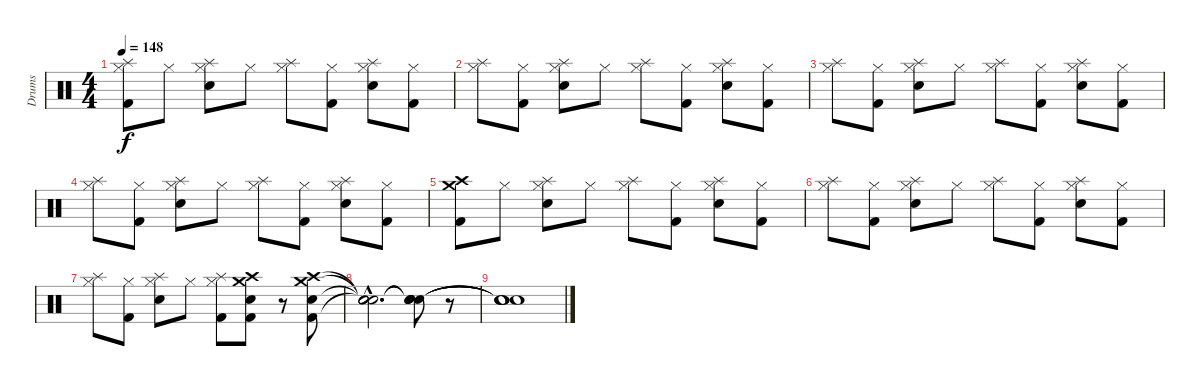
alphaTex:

\track ("Drums" "Drums") {instrument percussion}
\staff {score}
\articulation defaults
\ts (4 4)
\tempo 148
\clef neutral
\ks c
("Splash (hit)" "Hi-Hat (closed)" "Kick (hit) 2").8{dy f} "Hi-Hat (closed)".8 ("Hi-Hat (closed)" "Snare (hit) 2" "Splash (hit)").8 "Hi-Hat (closed)".8 ("Hi-Hat (closed)" "Splash (hit)").8 ("Hi-Hat (closed)" "Kick (hit) 2").8 ("Hi-Hat (closed)" "Snare (hit) 2" "Splash (hit)").8 ("Hi-Hat (closed)" "Kick (hit) 2").8 |
("Hi-Hat (closed)" "Splash (hit)").8 ("Hi-Hat (closed)" "Kick (hit) 2").8 ("Hi-Hat (closed)" "Splash (hit)" "Snare (hit) 2").8{volume 13 balance 8} "Hi-Hat (closed)".8 ("Hi-Hat (closed)" "Splash (hit)").8 ("Hi-Hat (closed)" "Kick (hit) 2").8 ("Hi-Hat (closed)" "Snare (hit) 2" "Splash (hit)").8 ("Hi-Hat (closed)" "Kick (hit) 2").8 |
("Hi-Hat (closed)" "Splash (hit)").8 ("Hi-Hat (closed)" "Kick (hit) 2").8 ("Hi-Hat (closed)" "Splash (hit)" "Snare (hit) 2").8 "Hi-Hat (closed)".8 ("Hi-Hat (closed)" "Splash (hit)").8 ("Hi-Hat (closed)" "Kick (hit) 2").8 ("Hi-Hat (closed)" "Snare (hit) 2" "Splash (hit)").8 ("Hi-Hat (closed)" "Kick (hit) 2").8 |
("Hi-Hat (closed)" "Splash (hit)").8 ("Hi-Hat (closed)" "Kick (hit) 2").8 ("Hi-Hat (closed)" "Splash (hit)" "Snare (hit) 2").8 "Hi-Hat (closed)".8 ("Hi-Hat (closed)" "Splash (hit)").8 ("Kick (hit) 2" "Hi-Hat (closed)").8 ("Snare (hit) 2" "Hi-Hat (closed)" "Splash (hit)").8 ("Hi-Hat (closed)" "Kick (hit) 2").8 |
("Kick (hit) 2" "Crash medium (hit)" "Crash high (hit)").8 "Hi-Hat (closed)".8 ("Hi-Hat (closed)" "Splash (hit)" "Snare (hit) 2").8 "Hi-Hat (closed)".8 ("Hi-Hat (closed)" "Splash (hit)").8 ("Hi-Hat (closed)" "Kick (hit) 2").8 ("Hi-Hat (closed)" "Snare (hit) 2" "Splash (hit)").8 ("Hi-Hat (closed)" "Kick (hit) 2").8 |
("Hi-Hat (closed)" "Splash (hit)").8 ("Hi-Hat (closed)" "Kick (hit) 2").8 ("Hi-Hat (closed)" "Snare (hit) 2" "Splash (hit)").8 "Hi-Hat (closed)".8 ("Hi-Hat (closed)" "Splash (hit)").8 ("Hi-Hat (closed)" "Kick (hit) 2").8 ("Hi-Hat (closed)" "Snare (hit) 2" "Splash (hit)").8 ("Hi-Hat (closed)" "Kick (hit) 2").8 |
("Hi-Hat (closed)" "Splash (hit)").8 ("Kick (hit) 2" "Hi-Hat (closed)").8 ("Hi-Hat (closed)" "Snare (hit) 2" "Splash (hit)").8 "Hi-Hat (closed)".8 ("Kick (hit) 2" "Hi-Hat (closed)" "Splash (hit)").8 ("Crash high (hit)" "Crash medium (hit)" "Snare (hit) 2" "Kick (hit) 2").8 r.8 ("Crash medium (hit)" "Snare (hit) 2" "Kick (hit) 2" "Crash high (hit)").8 |
("Snare (hit)"{hac t} "Snare (hit)"{hac t} "Snare (hit)"{hac t} "Snare (hit)"{hac t}).2{d} ("Snare (hit)"{t} "Snare (hit)"{t} "Snare (hit)"{t} "Snare (hit)"{t}).8 r.8 |
("Snare (hit)"{t} "Snare (hit)"{t} "Snare (hit)"{t} "Snare (hit)"{t}).1
